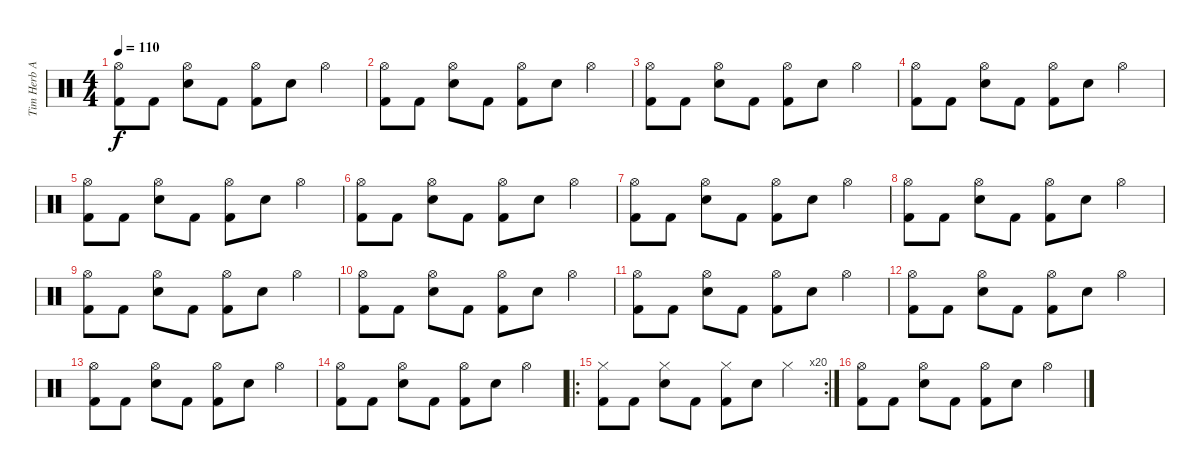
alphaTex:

\track ("Tim Herb Alexander" "Tim Herb A") {instrument percussion}
\staff {score}
\articulation defaults
\ts (4 4)
\tempo 110
\clef neutral
\ks c
("Hi-Hat (open)" "Kick (hit) 2").8{dy f} "Kick (hit) 2".8 ("Hi-Hat (open)" "Snare (hit) 2").8 "Kick (hit) 2".8 ("Hi-Hat (open)" "Kick (hit) 2").8 "Snare (hit) 2".8 "Hi-Hat (open)".4 |
("Hi-Hat (open)" "Kick (hit) 2").8 "Kick (hit) 2".8 ("Hi-Hat (open)" "Snare (hit) 2").8 "Kick (hit) 2".8 ("Hi-Hat (open)" "Kick (hit) 2").8 "Snare (hit) 2".8 "Hi-Hat (open)".4 |
("Hi-Hat (open)" "Kick (hit) 2").8 "Kick (hit) 2".8 ("Hi-Hat (open)" "Snare (hit) 2").8 "Kick (hit) 2".8 ("Hi-Hat (open)" "Kick (hit) 2").8 "Snare (hit) 2".8 "Hi-Hat (open)".4 |
("Hi-Hat (open)" "Kick (hit) 2").8 "Kick (hit) 2".8 ("Hi-Hat (open)" "Snare (hit) 2").8 "Kick (hit) 2".8 ("Hi-Hat (open)" "Kick (hit) 2").8 "Snare (hit) 2".8 "Hi-Hat (open)".4 |
("Hi-Hat (open)" "Kick (hit) 2").8 "Kick (hit) 2".8 ("Hi-Hat (open)" "Snare (hit) 2").8 "Kick (hit) 2".8 ("Hi-Hat (open)" "Kick (hit) 2").8 "Snare (hit) 2".8 "Hi-Hat (open)".4 |
("Hi-Hat (open)" "Kick (hit) 2").8 "Kick (hit) 2".8 ("Hi-Hat (open)" "Snare (hit) 2").8 "Kick (hit) 2".8 ("Hi-Hat (open)" "Kick (hit) 2").8 "Snare (hit) 2".8 "Hi-Hat (open)".4 |
("Hi-Hat (open)" "Kick (hit) 2").8 "Kick (hit) 2".8 ("Hi-Hat (open)" "Snare (hit) 2").8 "Kick (hit) 2".8 ("Hi-Hat (open)" "Kick (hit) 2").8 "Snare (hit) 2".8 "Hi-Hat (open)".4 |
("Hi-Hat (open)" "Kick (hit) 2").8 "Kick (hit) 2".8 ("Hi-Hat (open)" "Snare (hit) 2").8 "Kick (hit) 2".8 ("Hi-Hat (open)" "Kick (hit) 2").8 "Snare (hit) 2".8 "Hi-Hat (open)".4 |
("Hi-Hat (open)" "Kick (hit) 2").8 "Kick (hit) 2".8 ("Hi-Hat (open)" "Snare (hit) 2").8 "Kick (hit) 2".8 ("Hi-Hat (open)" "Kick (hit) 2").8 "Snare (hit) 2".8 "Hi-Hat (open)".4 |
("Hi-Hat (open)" "Kick (hit) 2").8 "Kick (hit) 2".8 ("Hi-Hat (open)" "Snare (hit) 2").8 "Kick (hit) 2".8 ("Hi-Hat (open)" "Kick (hit) 2").8 "Snare (hit) 2".8 "Hi-Hat (open)".4 |
("Hi-Hat (open)" "Kick (hit) 2").8 "Kick (hit) 2".8 ("Hi-Hat (open)" "Snare (hit) 2").8 "Kick (hit) 2".8 ("Hi-Hat (open)" "Kick (hit) 2").8 "Snare (hit) 2".8 "Hi-Hat (open)".4 |
("Hi-Hat (open)" "Kick (hit) 2").8 "Kick (hit) 2".8 ("Hi-Hat (open)" "Snare (hit) 2").8 "Kick (hit) 2".8 ("Hi-Hat (open)" "Kick (hit) 2").8 "Snare (hit) 2".8 "Hi-Hat (open)".4 |
("Hi-Hat (open)" "Kick (hit) 2").8 "Kick (hit) 2".8 ("Hi-Hat (open)" "Snare (hit) 2").8 "Kick (hit) 2".8 ("Hi-Hat (open)" "Kick (hit) 2").8 "Snare (hit) 2".8 "Hi-Hat (open)".4 |
("Hi-Hat (open)" "Kick (hit) 2").8 "Kick (hit) 2".8 ("Hi-Hat (open)" "Snare (hit) 2").8 "Kick (hit) 2".8 ("Hi-Hat (open)" "Kick (hit) 2").8 "Snare (hit) 2".8 "Hi-Hat (open)".4 |
\ro
\rc 20
("Hi-Hat (closed)" "Kick (hit) 2").8 "Kick (hit) 2".8 ("Hi-Hat (closed)" "Snare (hit) 2").8 "Kick (hit) 2".8 ("Hi-Hat (closed)" "Kick (hit) 2").8 "Snare (hit) 2".8 "Hi-Hat (closed)".4 |
("Hi-Hat (open)" "Kick (hit) 2").8 "Kick (hit) 2".8 ("Hi-Hat (open)" "Snare (hit) 2").8 "Kick (hit) 2".8 ("Hi-Hat (open)" "Kick (hit) 2").8 "Snare (hit) 2".8 "Hi-Hat (open)".4
